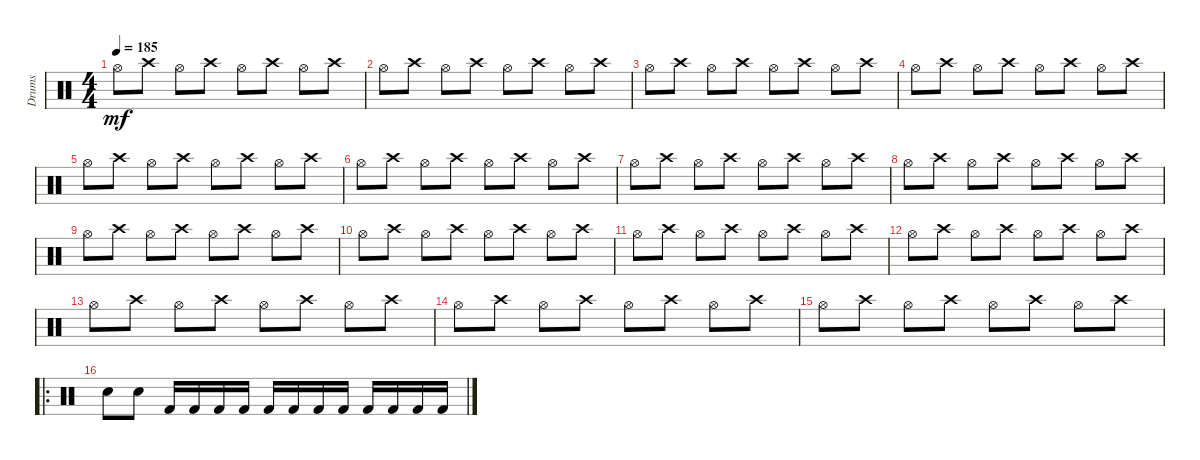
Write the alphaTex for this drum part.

\track ("Drums" "Drums") {instrument percussion}
\staff {score}
\articulation defaults
\ts (4 4)
\tempo 185
\clef neutral
\ks c "Hi-Hat (open)".8{dy mf} "Crash high (hit)".8 "Hi-Hat (open)".8 "Crash high (hit)".8 "Hi-Hat (open)".8 "Crash high (hit)".8 "Hi-Hat (open)".8 "Crash high (hit)".8
|
"Hi-Hat (open)".8 "Crash high (hit)".8 "Hi-Hat (open)".8 "Crash high (hit)".8 "Hi-Hat (open)".8 "Crash high (hit)".8 "Hi-Hat (open)".8 "Crash high (hit)".8 |
"Hi-Hat (open)".8 "Crash high (hit)".8 "Hi-Hat (open)".8 "Crash high (hit)".8 "Hi-Hat (open)".8 "Crash high (hit)".8 "Hi-Hat (open)".8 "Crash high (hit)".8 |
"Hi-Hat (open)".8 "Crash high (hit)".8 "Hi-Hat (open)".8 "Crash high (hit)".8 "Hi-Hat (open)".8 "Crash high (hit)".8 "Hi-Hat (open)".8 "Crash high (hit)".8 |
"Hi-Hat (open)".8 "Crash high (hit)".8 "Hi-Hat (open)".8 "Crash high (hit)".8 "Hi-Hat (open)".8 "Crash high (hit)".8 "Hi-Hat (open)".8 "Crash high (hit)".8 |
"Hi-Hat (open)".8 "Crash high (hit)".8 "Hi-Hat (open)".8 "Crash high (hit)".8 "Hi-Hat (open)".8 "Crash high (hit)".8 "Hi-Hat (open)".8 "Crash high (hit)".8 |
"Hi-Hat (open)".8 "Crash high (hit)".8 "Hi-Hat (open)".8 "Crash high (hit)".8 "Hi-Hat (open)".8 "Crash high (hit)".8 "Hi-Hat (open)".8 "Crash high (hit)".8 |
"Hi-Hat (open)".8 "Crash high (hit)".8 "Hi-Hat (open)".8 "Crash high (hit)".8 "Hi-Hat (open)".8 "Crash high (hit)".8 "Hi-Hat (open)".8 "Crash high (hit)".8 |
"Hi-Hat (open)".8 "Crash high (hit)".8 "Hi-Hat (open)".8 "Crash high (hit)".8 "Hi-Hat (open)".8 "Crash high (hit)".8 "Hi-Hat (open)".8 "Crash high (hit)".8 |
"Hi-Hat (open)".8 "Crash high (hit)".8 "Hi-Hat (open)".8 "Crash high (hit)".8 "Hi-Hat (open)".8 "Crash high (hit)".8 "Hi-Hat (open)".8 "Crash high (hit)".8 |
"Hi-Hat (open)".8 "Crash high (hit)".8 "Hi-Hat (open)".8 "Crash high (hit)".8 "Hi-Hat (open)".8 "Crash high (hit)".8 "Hi-Hat (open)".8 "Crash high (hit)".8 |
"Hi-Hat (open)".8 "Crash high (hit)".8 "Hi-Hat (open)".8 "Crash high (hit)".8 "Hi-Hat (open)".8 "Crash high (hit)".8 "Hi-Hat (open)".8 "Crash high (hit)".8 |
"Hi-Hat (open)".8 "Crash high (hit)".8 "Hi-Hat (open)".8 "Crash high (hit)".8 "Hi-Hat (open)".8 "Crash high (hit)".8 "Hi-Hat (open)".8 "Crash high (hit)".8 |
"Hi-Hat (open)".8 "Crash high (hit)".8 "Hi-Hat (open)".8 "Crash high (hit)".8 "Hi-Hat (open)".8 "Crash high (hit)".8 "Hi-Hat (open)".8 "Crash high (hit)".8 |
"Hi-Hat (open)".8 "Crash high (hit)".8 "Hi-Hat (open)".8 "Crash high (hit)".8 "Hi-Hat (open)".8 "Crash high (hit)".8 "Hi-Hat (open)".8 "Crash high (hit)".8 |
\ro "Electric Snare (hit)".8 "Electric Snare (hit)".8 "Kick (hit) 2".16 "Kick (hit) 2".16 "Kick (hit) 2".16 "Kick (hit) 2".16 "Kick (hit) 2".16 "Kick (hit) 2".16 "Kick (hit) 2".16 "Kick (hit) 2".16 "Kick (hit) 2".16 "Kick (hit) 2".16 "Kick (hit) 2".16 "Kick (hit) 2".16
